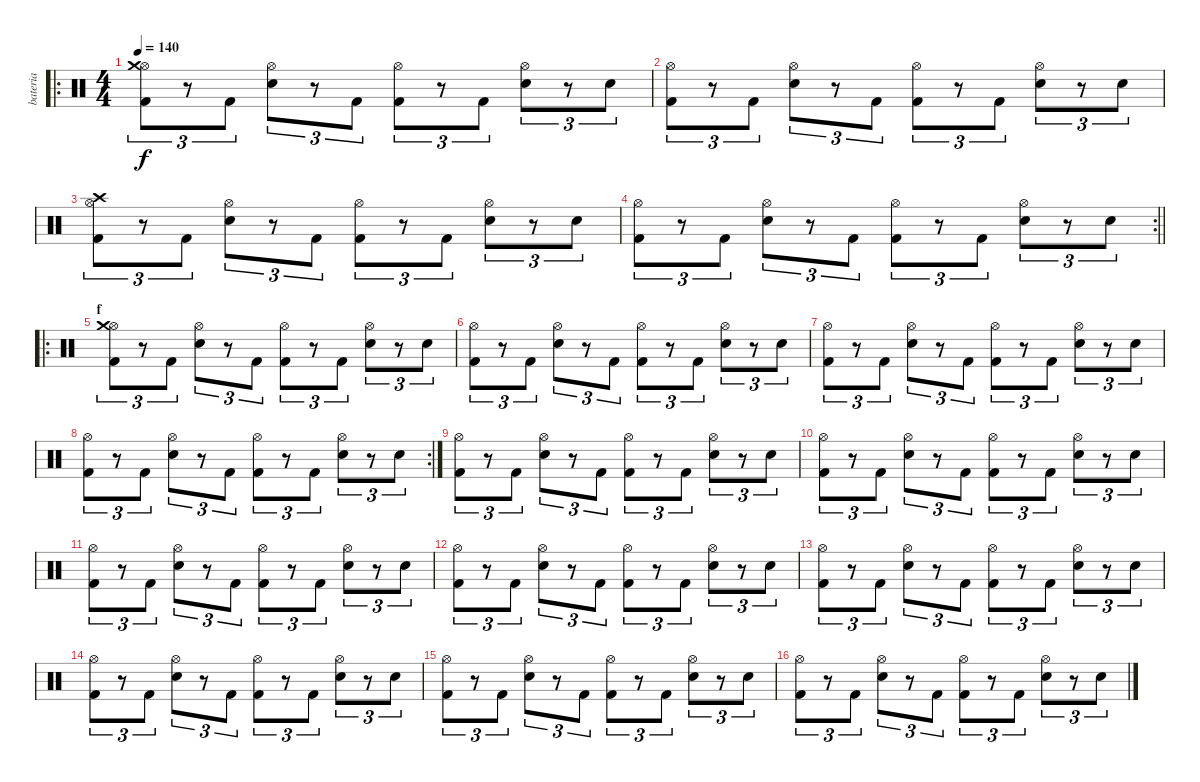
\track ("bateria" "bateria") {mute instrument percussion}
\staff {score}
\articulation defaults
\ro
\ts (4 4)
\tempo 140
\clef neutral
\ks c
("Hi-Hat (open)" "Kick (hit) 2" "Crash medium (hit)").8{tu (3 2) dy f} r.8{tu (3 2)} "Kick (hit) 2".8{tu (3 2)} ("Electric Snare (hit)" "Hi-Hat (open)").8{tu (3 2)} r.8{tu (3 2)} "Kick (hit) 2".8{tu (3 2)} ("Kick (hit) 2" "Hi-Hat (open)").8{tu (3 2)} r.8{tu (3 2)} "Kick (hit) 2".8{tu (3 2)} ("Electric Snare (hit)" "Hi-Hat (open)").8{tu (3 2)} r.8{tu (3 2)} "Electric Snare (hit)".8{tu (3 2)} |
("Hi-Hat (open)" "Kick (hit) 2").8{tu (3 2)} r.8{tu (3 2)} "Kick (hit) 2".8{tu (3 2)} ("Electric Snare (hit)" "Hi-Hat (open)").8{tu (3 2)} r.8{tu (3 2)} "Kick (hit) 2".8{tu (3 2)} ("Kick (hit) 2" "Hi-Hat (open)").8{tu (3 2)} r.8{tu (3 2)} "Kick (hit) 2".8{tu (3 2)} ("Electric Snare (hit)" "Hi-Hat (open)").8{tu (3 2)} r.8{tu (3 2)} "Electric Snare (hit)".8{tu (3 2)} |
("Hi-Hat (open)" "Kick (hit) 2" "Crash high (hit)").8{tu (3 2)} r.8{tu (3 2)} "Kick (hit) 2".8{tu (3 2)} ("Electric Snare (hit)" "Hi-Hat (open)").8{tu (3 2)} r.8{tu (3 2)} "Kick (hit) 2".8{tu (3 2)} ("Kick (hit) 2" "Hi-Hat (open)").8{tu (3 2)} r.8{tu (3 2)} "Kick (hit) 2".8{tu (3 2)} ("Electric Snare (hit)" "Hi-Hat (open)").8{tu (3 2)} r.8{tu (3 2)} "Electric Snare (hit)".8{tu (3 2)} |
\rc 2
\barLineRight lightlight
("Hi-Hat (open)" "Kick (hit) 2").8{tu (3 2)} r.8{tu (3 2)} "Kick (hit) 2".8{tu (3 2)} ("Electric Snare (hit)" "Hi-Hat (open)").8{tu (3 2)} r.8{tu (3 2)} "Kick (hit) 2".8{tu (3 2)} ("Kick (hit) 2" "Hi-Hat (open)").8{tu (3 2)} r.8{tu (3 2)} "Kick (hit) 2".8{tu (3 2)} ("Electric Snare (hit)" "Hi-Hat (open)").8{tu (3 2)} r.8{tu (3 2)} "Electric Snare (hit)".8{tu (3 2)} |
\ro
\section ("" "f")
("Hi-Hat (open)" "Kick (hit) 2" "Crash medium (hit)").8{tu (3 2)} r.8{tu (3 2)} "Kick (hit) 2".8{tu (3 2)} ("Electric Snare (hit)" "Hi-Hat (open)").8{tu (3 2)} r.8{tu (3 2)} "Kick (hit) 2".8{tu (3 2)} ("Kick (hit) 2" "Hi-Hat (open)").8{tu (3 2)} r.8{tu (3 2)} "Kick (hit) 2".8{tu (3 2)} ("Electric Snare (hit)" "Hi-Hat (open)").8{tu (3 2)} r.8{tu (3 2)} "Electric Snare (hit)".8{tu (3 2)} |
("Hi-Hat (open)" "Kick (hit) 2").8{tu (3 2)} r.8{tu (3 2)} "Kick (hit) 2".8{tu (3 2)} ("Electric Snare (hit)" "Hi-Hat (open)").8{tu (3 2)} r.8{tu (3 2)} "Kick (hit) 2".8{tu (3 2)} ("Kick (hit) 2" "Hi-Hat (open)").8{tu (3 2)} r.8{tu (3 2)} "Kick (hit) 2".8{tu (3 2)} ("Electric Snare (hit)" "Hi-Hat (open)").8{tu (3 2)} r.8{tu (3 2)} "Electric Snare (hit)".8{tu (3 2)} |
("Hi-Hat (open)" "Kick (hit) 2").8{tu (3 2)} r.8{tu (3 2)} "Kick (hit) 2".8{tu (3 2)} ("Electric Snare (hit)" "Hi-Hat (open)").8{tu (3 2)} r.8{tu (3 2)} "Kick (hit) 2".8{tu (3 2)} ("Kick (hit) 2" "Hi-Hat (open)").8{tu (3 2)} r.8{tu (3 2)} "Kick (hit) 2".8{tu (3 2)} ("Electric Snare (hit)" "Hi-Hat (open)").8{tu (3 2)} r.8{tu (3 2)} "Electric Snare (hit)".8{tu (3 2)} |
\rc 2
("Hi-Hat (open)" "Kick (hit) 2").8{tu (3 2)} r.8{tu (3 2)} "Kick (hit) 2".8{tu (3 2)} ("Electric Snare (hit)" "Hi-Hat (open)").8{tu (3 2)} r.8{tu (3 2)} "Kick (hit) 2".8{tu (3 2)} ("Kick (hit) 2" "Hi-Hat (open)").8{tu (3 2)} r.8{tu (3 2)} "Kick (hit) 2".8{tu (3 2)} ("Electric Snare (hit)" "Hi-Hat (open)").8{tu (3 2)} r.8{tu (3 2)} "Electric Snare (hit)".8{tu (3 2)} |
("Hi-Hat (open)" "Kick (hit) 2").8{tu (3 2)} r.8{tu (3 2)} "Kick (hit) 2".8{tu (3 2)} ("Electric Snare (hit)" "Hi-Hat (open)").8{tu (3 2)} r.8{tu (3 2)} "Kick (hit) 2".8{tu (3 2)} ("Kick (hit) 2" "Hi-Hat (open)").8{tu (3 2)} r.8{tu (3 2)} "Kick (hit) 2".8{tu (3 2)} ("Electric Snare (hit)" "Hi-Hat (open)").8{tu (3 2)} r.8{tu (3 2)} "Electric Snare (hit)".8{tu (3 2)} |
("Hi-Hat (open)" "Kick (hit) 2").8{tu (3 2)} r.8{tu (3 2)} "Kick (hit) 2".8{tu (3 2)} ("Electric Snare (hit)" "Hi-Hat (open)").8{tu (3 2)} r.8{tu (3 2)} "Kick (hit) 2".8{tu (3 2)} ("Kick (hit) 2" "Hi-Hat (open)").8{tu (3 2)} r.8{tu (3 2)} "Kick (hit) 2".8{tu (3 2)} ("Electric Snare (hit)" "Hi-Hat (open)").8{tu (3 2)} r.8{tu (3 2)} "Electric Snare (hit)".8{tu (3 2)} |
("Hi-Hat (open)" "Kick (hit) 2").8{tu (3 2)} r.8{tu (3 2)} "Kick (hit) 2".8{tu (3 2)} ("Electric Snare (hit)" "Hi-Hat (open)").8{tu (3 2)} r.8{tu (3 2)} "Kick (hit) 2".8{tu (3 2)} ("Kick (hit) 2" "Hi-Hat (open)").8{tu (3 2)} r.8{tu (3 2)} "Kick (hit) 2".8{tu (3 2)} ("Electric Snare (hit)" "Hi-Hat (open)").8{tu (3 2)} r.8{tu (3 2)} "Electric Snare (hit)".8{tu (3 2)} |
("Hi-Hat (open)" "Kick (hit) 2").8{tu (3 2)} r.8{tu (3 2)} "Kick (hit) 2".8{tu (3 2)} ("Electric Snare (hit)" "Hi-Hat (open)").8{tu (3 2)} r.8{tu (3 2)} "Kick (hit) 2".8{tu (3 2)} ("Kick (hit) 2" "Hi-Hat (open)").8{tu (3 2)} r.8{tu (3 2)} "Kick (hit) 2".8{tu (3 2)} ("Electric Snare (hit)" "Hi-Hat (open)").8{tu (3 2)} r.8{tu (3 2)} "Electric Snare (hit)".8{tu (3 2)} |
("Hi-Hat (open)" "Kick (hit) 2").8{tu (3 2)} r.8{tu (3 2)} "Kick (hit) 2".8{tu (3 2)} ("Electric Snare (hit)" "Hi-Hat (open)").8{tu (3 2)} r.8{tu (3 2)} "Kick (hit) 2".8{tu (3 2)} ("Kick (hit) 2" "Hi-Hat (open)").8{tu (3 2)} r.8{tu (3 2)} "Kick (hit) 2".8{tu (3 2)} ("Electric Snare (hit)" "Hi-Hat (open)").8{tu (3 2)} r.8{tu (3 2)} "Electric Snare (hit)".8{tu (3 2)} |
("Hi-Hat (open)" "Kick (hit) 2").8{tu (3 2)} r.8{tu (3 2)} "Kick (hit) 2".8{tu (3 2)} ("Electric Snare (hit)" "Hi-Hat (open)").8{tu (3 2)} r.8{tu (3 2)} "Kick (hit) 2".8{tu (3 2)} ("Kick (hit) 2" "Hi-Hat (open)").8{tu (3 2)} r.8{tu (3 2)} "Kick (hit) 2".8{tu (3 2)} ("Electric Snare (hit)" "Hi-Hat (open)").8{tu (3 2)} r.8{tu (3 2)} "Electric Snare (hit)".8{tu (3 2)} |
("Hi-Hat (open)" "Kick (hit) 2").8{tu (3 2)} r.8{tu (3 2)} "Kick (hit) 2".8{tu (3 2)} ("Electric Snare (hit)" "Hi-Hat (open)").8{tu (3 2)} r.8{tu (3 2)} "Kick (hit) 2".8{tu (3 2)} ("Kick (hit) 2" "Hi-Hat (open)").8{tu (3 2)} r.8{tu (3 2)} "Kick (hit) 2".8{tu (3 2)} ("Electric Snare (hit)" "Hi-Hat (open)").8{tu (3 2)} r.8{tu (3 2)} "Electric Snare (hit)".8{tu (3 2)} |
("Hi-Hat (open)" "Kick (hit) 2").8{tu (3 2)} r.8{tu (3 2)} "Kick (hit) 2".8{tu (3 2)} ("Electric Snare (hit)" "Hi-Hat (open)").8{tu (3 2)} r.8{tu (3 2)} "Kick (hit) 2".8{tu (3 2)} ("Kick (hit) 2" "Hi-Hat (open)").8{tu (3 2)} r.8{tu (3 2)} "Kick (hit) 2".8{tu (3 2)} ("Electric Snare (hit)" "Hi-Hat (open)").8{tu (3 2)} r.8{tu (3 2)} "Electric Snare (hit)".8{tu (3 2)}
